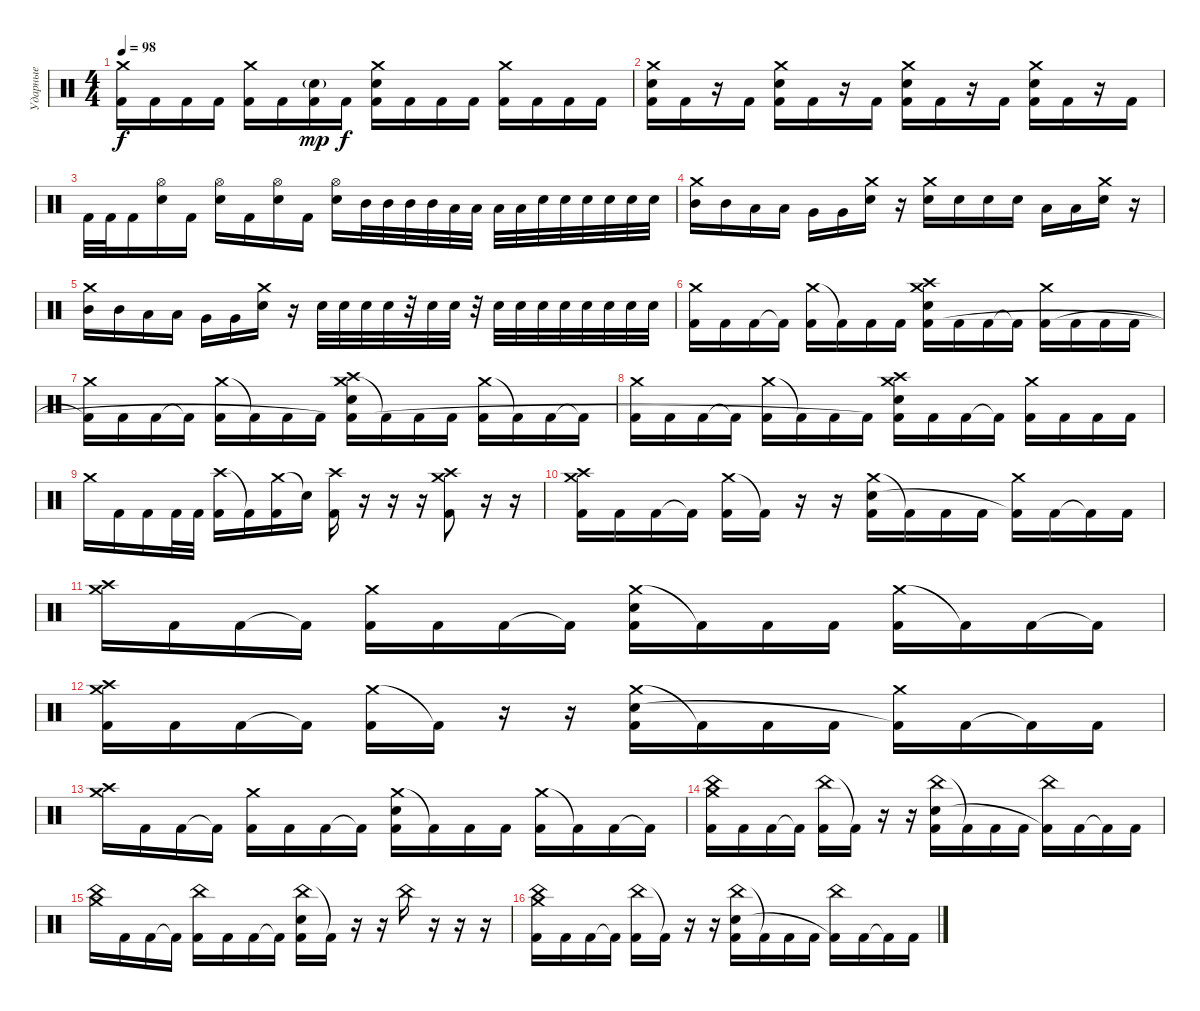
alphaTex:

\track ("Ударные" "Ударные") {instrument percussion}
\staff {score}
\articulation defaults
\ts (4 4)
\tempo 98
\clef neutral
\ks c
("Crash medium (hit)" "Kick (hit) 2").16{dy f} "Kick (hit) 2".16 "Kick (hit) 2".16 "Kick (hit) 2".16 ("Crash medium (hit)" "Kick (hit) 2").16 "Kick (hit) 2".16 ("Electric Snare (hit)"{g} "Kick (hit) 2").16{dy mp} "Kick (hit) 2".16{dy f} ("Crash medium (hit)" "Electric Snare (hit)" "Kick (hit) 2").16 "Kick (hit) 2".16 "Kick (hit) 2".16 "Kick (hit) 2".16 ("Crash medium (hit)" "Kick (hit) 2").16 "Kick (hit) 2".16 "Kick (hit) 2".16 "Kick (hit) 2".16 |
("Crash medium (hit)" "Electric Snare (hit)" "Kick (hit) 2").16 "Kick (hit) 2".16 r.16 "Kick (hit) 2".16 ("Crash medium (hit)" "Electric Snare (hit)" "Kick (hit) 2").16 "Kick (hit) 2".16 r.16 "Kick (hit) 2".16 ("Crash medium (hit)" "Electric Snare (hit)" "Kick (hit) 2").16 "Kick (hit) 2".16 r.16 "Kick (hit) 2".16 ("Crash medium (hit)" "Electric Snare (hit)" "Kick (hit) 2").16 "Kick (hit) 2".16 r.16 "Kick (hit) 2".16 |
"Kick (hit) 2".32 "Kick (hit) 2".32 "Kick (hit) 2".16 ("Hi-Hat (open)" "Electric Snare (hit)").16 "Kick (hit) 2".16 ("Hi-Hat (open)" "Electric Snare (hit)").16 "Kick (hit) 2".16 ("Hi-Hat (open)" "Electric Snare (hit)").16 "Kick (hit) 2".16 ("Hi-Hat (open)" "Electric Snare (hit)").16 "Mid Tom (hit)".32 "Mid Tom (hit)".32 "Mid Tom (hit)".32 "Mid Tom (hit)".32 "Low Tom (hit)".32 "Low Tom (hit)".32 "Low Tom (hit)".32 "Low Tom (hit)".32 "Electric Snare (hit)".32 "Electric Snare (hit)".32 "Electric Snare (hit)".32 "Electric Snare (hit)".32 "Electric Snare (hit)".32 "Electric Snare (hit)".32 |
("Crash medium (hit)" "Mid Tom (hit)").16 "Mid Tom (hit)".16 "Low Tom (hit)".16 "Low Tom (hit)".16 "Very Low Tom (hit)".16 "Very Low Tom (hit)".16 ("Crash medium (hit)" "Electric Snare (hit)").16 r.16 ("Crash medium (hit)" "Electric Snare (hit)").16 "Electric Snare (hit)".16 "Electric Snare (hit)".16 "Electric Snare (hit)".16 "Low Tom (hit)".16 "Low Tom (hit)".16 ("Crash medium (hit)" "Electric Snare (hit)").16 r.16 |
("Crash medium (hit)" "Mid Tom (hit)").16 "Mid Tom (hit)".16 "Low Tom (hit)".16 "Low Tom (hit)".16 "Very Low Tom (hit)".16 "Very Low Tom (hit)".16 ("Crash medium (hit)" "Electric Snare (hit)").16 r.16 "Electric Snare (hit)".32 "Electric Snare (hit)".32 "Electric Snare (hit)".32 "Electric Snare (hit)".32 r.32 "Electric Snare (hit)".32 "Electric Snare (hit)".32 r.32 "Electric Snare (hit)".32 "Electric Snare (hit)".32 "Electric Snare (hit)".32 "Electric Snare (hit)".32 "Electric Snare (hit)".32 "Electric Snare (hit)".32 "Electric Snare (hit)".32 "Electric Snare (hit)".32 |
("Crash medium (hit)" "Kick (hit) 2").16 "Kick (hit) 2".16 "Kick (hit) 2".16 "Kick (hit) 2"{t}.16 ("Crash medium (hit)" "Kick (hit) 2").16 "Kick (hit) 2"{t}.16 "Kick (hit) 2".16 "Kick (hit) 2".16 ("Crash medium (hit)" "Crash high (hit)" "Electric Snare (hit)" "Kick (hit) 2").16 "Kick (hit) 2".16 "Kick (hit) 2".16 "Kick (hit) 2"{t}.16 ("Crash medium (hit)" "Kick (hit) 2").16 "Kick (hit) 2".16 "Kick (hit) 2".16 "Kick (hit) 2".16 |
("Crash medium (hit)" "Kick (hit) 2"{t}).16 "Kick (hit) 2".16 "Kick (hit) 2".16 "Kick (hit) 2"{t}.16 ("Crash medium (hit)" "Kick (hit) 2").16 "Kick (hit) 2"{t}.16 "Kick (hit) 2".16 "Kick (hit) 2".16 ("Crash medium (hit)" "Crash high (hit)" "Electric Snare (hit)" "Kick (hit) 2"{t}).16 "Kick (hit) 2"{t}.16 "Kick (hit) 2".16 "Kick (hit) 2".16 ("Crash medium (hit)" "Kick (hit) 2").16 "Kick (hit) 2"{t}.16 "Kick (hit) 2".16 "Kick (hit) 2"{t}.16 |
("Crash medium (hit)" "Kick (hit) 2").16 "Kick (hit) 2".16 "Kick (hit) 2".16 "Kick (hit) 2"{t}.16 ("Crash medium (hit)" "Kick (hit) 2").16 "Kick (hit) 2"{t}.16 "Kick (hit) 2".16 "Kick (hit) 2".16 ("Crash medium (hit)" "Crash high (hit)" "Electric Snare (hit)" "Kick (hit) 2"{t}).16 "Kick (hit) 2".16 "Kick (hit) 2".16 "Kick (hit) 2"{t}.16 ("Crash medium (hit)" "Kick (hit) 2").16 "Kick (hit) 2".16 "Kick (hit) 2".16 "Kick (hit) 2".16 |
"Crash medium (hit)".16 "Kick (hit) 2".16 "Kick (hit) 2".16 "Kick (hit) 2".32 "Kick (hit) 2".32 ("Crash high (hit)" "Kick (hit) 2").16 "Kick (hit) 2"{t}.16 ("Crash medium (hit)" "Kick (hit) 2").16 "Snare (hit)"{t}.16 ("Crash high (hit)" "Kick (hit) 2").16 r.16 r.16 r.16 ("Crash medium (hit)" "Crash high (hit)" "Kick (hit) 2").8 r.16 r.16 |
("Crash medium (hit)" "Crash high (hit)" "Kick (hit) 2").16 "Kick (hit) 2".16 "Kick (hit) 2".16 "Kick (hit) 2"{t}.16 ("Crash medium (hit)" "Kick (hit) 2").16 "Kick (hit) 2"{t}.16 r.16 r.16 ("Crash medium (hit)" "Electric Snare (hit)" "Kick (hit) 2").16 "Kick (hit) 2"{t}.16 "Kick (hit) 2".16 "Kick (hit) 2".16 ("Crash medium (hit)" "Kick (hit) 2"{t}).16 "Kick (hit) 2".16 "Kick (hit) 2"{t}.16 "Kick (hit) 2".16 |
("Crash medium (hit)" "Crash high (hit)").16 "Kick (hit) 2".16 "Kick (hit) 2".16 "Kick (hit) 2"{t}.16 ("Crash medium (hit)" "Kick (hit) 2").16 "Kick (hit) 2".16 "Kick (hit) 2".16 "Kick (hit) 2"{t}.16 ("Crash medium (hit)" "Electric Snare (hit)" "Kick (hit) 2").16 "Kick (hit) 2"{t}.16 "Kick (hit) 2".16 "Kick (hit) 2".16 ("Crash medium (hit)" "Kick (hit) 2").16 "Kick (hit) 2"{t}.16 "Kick (hit) 2".16 "Kick (hit) 2"{t}.16 |
("Crash medium (hit)" "Crash high (hit)" "Kick (hit) 2").16 "Kick (hit) 2".16 "Kick (hit) 2".16 "Kick (hit) 2"{t}.16 ("Crash medium (hit)" "Kick (hit) 2").16 "Kick (hit) 2"{t}.16 r.16 r.16 ("Crash medium (hit)" "Electric Snare (hit)" "Kick (hit) 2").16 "Kick (hit) 2"{t}.16 "Kick (hit) 2".16 "Kick (hit) 2".16 ("Crash medium (hit)" "Kick (hit) 2"{t}).16 "Kick (hit) 2".16 "Kick (hit) 2"{t}.16 "Kick (hit) 2".16 |
("Crash medium (hit)" "Crash high (hit)").16 "Kick (hit) 2".16 "Kick (hit) 2".16 "Kick (hit) 2"{t}.16 ("Crash medium (hit)" "Kick (hit) 2").16 "Kick (hit) 2".16 "Kick (hit) 2".16 "Kick (hit) 2"{t}.16 ("Crash medium (hit)" "Electric Snare (hit)" "Kick (hit) 2").16 "Kick (hit) 2"{t}.16 "Kick (hit) 2".16 "Kick (hit) 2".16 ("Crash medium (hit)" "Kick (hit) 2").16 "Kick (hit) 2"{t}.16 "Kick (hit) 2".16 "Kick (hit) 2"{t}.16 |
("China (hit)" "Crash medium (hit)" "Kick (hit) 2").16 "Kick (hit) 2".16 "Kick (hit) 2".16 "Kick (hit) 2"{t}.16 ("China (hit)" "Kick (hit) 2").16 "Kick (hit) 2"{t}.16 r.16 r.16 ("China (hit)" "Electric Snare (hit)" "Kick (hit) 2").16 "Kick (hit) 2"{t}.16 "Kick (hit) 2".16 "Kick (hit) 2".16 ("China (hit)" "Kick (hit) 2"{t}).16 "Kick (hit) 2".16 "Kick (hit) 2"{t}.16 "Kick (hit) 2".16 |
("China (hit)" "Crash medium (hit)").16 "Kick (hit) 2".16 "Kick (hit) 2".16 "Kick (hit) 2"{t}.16 ("China (hit)" "Kick (hit) 2").16 "Kick (hit) 2".16 "Kick (hit) 2".16 "Kick (hit) 2"{t}.16 ("China (hit)" "Electric Snare (hit)" "Kick (hit) 2").16 "Kick (hit) 2"{t}.16 r.16 r.16 "China (hit)".16 r.16 r.16 r.16 |
("China (hit)" "Crash medium (hit)" "Kick (hit) 2").16 "Kick (hit) 2".16 "Kick (hit) 2".16 "Kick (hit) 2"{t}.16 ("China (hit)" "Kick (hit) 2").16 "Kick (hit) 2"{t}.16 r.16 r.16 ("China (hit)" "Electric Snare (hit)" "Kick (hit) 2").16 "Kick (hit) 2"{t}.16 "Kick (hit) 2".16 "Kick (hit) 2".16 ("China (hit)" "Kick (hit) 2"{t}).16 "Kick (hit) 2".16 "Kick (hit) 2"{t}.16 "Kick (hit) 2".16
